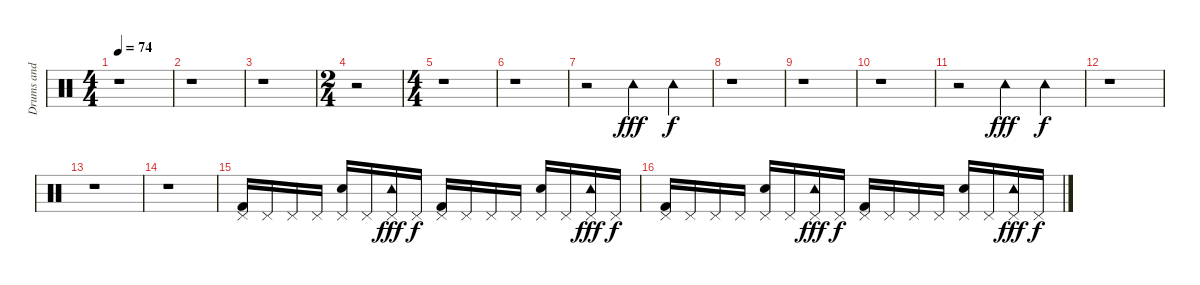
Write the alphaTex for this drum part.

\track ("Drums and Percussion" "Drums and ") {instrument percussion}
\staff {score}
\articulation defaults
\ts (4 4)
\tempo 74
\clef neutral
\ks c
r.1{dy fff} |
r.1 |
r.1 |
\ts (2 4)
r.2 |
\ts (4 4)
r.1 |
r.1 |
r.2 "Tambourine (hit)".4 "Tambourine (hit)".4{dy f} |
r.1 |
r.1 |
r.1 |
r.2 "Tambourine (hit)".4{dy fff} "Tambourine (hit)".4{dy f} |
r.1 |
r.1 |
r.1 |
("Pedal Hi-Hat (hit)" "Kick (hit) 2").16 "Pedal Hi-Hat (hit)".16 "Pedal Hi-Hat (hit)".16 "Pedal Hi-Hat (hit)".16 ("Pedal Hi-Hat (hit)" "Snare (hit) 2").16 "Pedal Hi-Hat (hit)".16 ("Pedal Hi-Hat (hit)" "Tambourine (hit)").16{dy fff} "Pedal Hi-Hat (hit)".16{dy f} ("Pedal Hi-Hat (hit)" "Kick (hit) 2").16 "Pedal Hi-Hat (hit)".16 "Pedal Hi-Hat (hit)".16 "Pedal Hi-Hat (hit)".16 ("Pedal Hi-Hat (hit)" "Snare (hit) 2").16 "Pedal Hi-Hat (hit)".16 ("Pedal Hi-Hat (hit)" "Tambourine (hit)").16{dy fff} "Pedal Hi-Hat (hit)".16{dy f} |
("Pedal Hi-Hat (hit)" "Kick (hit) 2").16 "Pedal Hi-Hat (hit)".16 "Pedal Hi-Hat (hit)".16 "Pedal Hi-Hat (hit)".16 ("Pedal Hi-Hat (hit)" "Snare (hit) 2").16 "Pedal Hi-Hat (hit)".16 ("Pedal Hi-Hat (hit)" "Tambourine (hit)").16{dy fff} "Pedal Hi-Hat (hit)".16{dy f} ("Pedal Hi-Hat (hit)" "Kick (hit) 2").16 "Pedal Hi-Hat (hit)".16 "Pedal Hi-Hat (hit)".16 "Pedal Hi-Hat (hit)".16 ("Pedal Hi-Hat (hit)" "Snare (hit) 2").16 "Pedal Hi-Hat (hit)".16 ("Pedal Hi-Hat (hit)" "Tambourine (hit)").16{dy fff} "Pedal Hi-Hat (hit)".16{dy f}
